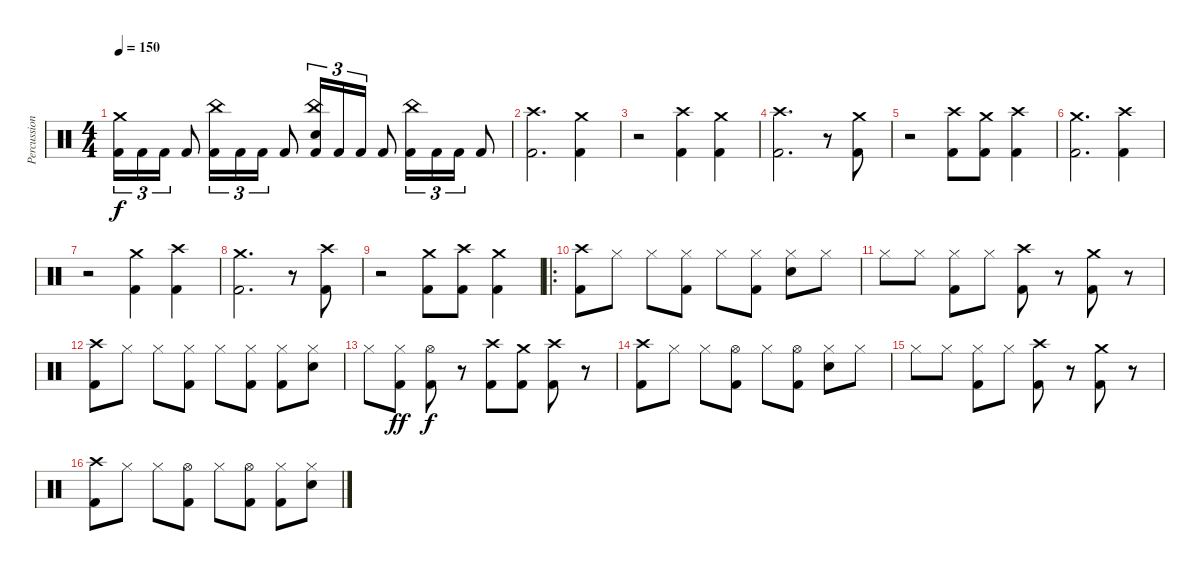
\track ("Percussion" "Percussion") {instrument percussion}
\staff {score}
\articulation defaults
\ts (4 4)
\tempo 150
\clef neutral
\ks c
("Crash medium (hit)" "Kick (hit) 2").16{tu (3 2) dy f} "Kick (hit) 2".16{tu (3 2)} "Kick (hit) 2".16{tu (3 2)} "Kick (hit) 2".8 ("China (hit)" "Kick (hit) 2").16{tu (3 2)} "Kick (hit) 2".16{tu (3 2)} "Kick (hit) 2".16{tu (3 2)} "Kick (hit) 2".8 ("China (hit)" "Snare (hit) 2" "Kick (hit) 2").16{tu (3 2)} "Kick (hit) 2".16{tu (3 2)} "Kick (hit) 2".16{tu (3 2)} "Kick (hit) 2".8 ("China (hit)" "Kick (hit) 2").16{tu (3 2)} "Kick (hit) 2".16{tu (3 2)} "Kick (hit) 2".16{tu (3 2)} "Kick (hit) 2".8 |
("Crash high (hit)" "Kick (hit) 2").2{d} ("Crash medium (hit)" "Kick (hit) 2").4 |
r.2 ("Crash high (hit)" "Kick (hit) 2").4 ("Crash medium (hit)" "Kick (hit) 2").4 |
("Crash high (hit)" "Kick (hit) 2").2{d} r.8 ("Crash medium (hit)" "Kick (hit) 2").8 |
r.2 ("Crash high (hit)" "Kick (hit) 2").8 ("Crash medium (hit)" "Kick (hit) 2").8 ("Crash high (hit)" "Kick (hit) 2").4 |
("Crash medium (hit)" "Kick (hit) 2").2{d} ("Crash high (hit)" "Kick (hit) 2").4 |
r.2 ("Crash medium (hit)" "Kick (hit) 2").4 ("Crash high (hit)" "Kick (hit) 2").4 |
("Crash medium (hit)" "Kick (hit) 2").2{d} r.8 ("Crash high (hit)" "Kick (hit) 2").8 |
r.2 ("Crash medium (hit)" "Kick (hit) 2").8 ("Crash high (hit)" "Kick (hit) 2").8 ("Crash medium (hit)" "Kick (hit) 2").4 |
\ro
("Crash high (hit)" "Kick (hit) 2").8 "Hi-Hat (closed)".8 "Hi-Hat (closed)".8 ("Hi-Hat (closed)" "Kick (hit) 2").8 "Hi-Hat (closed)".8 ("Hi-Hat (closed)" "Kick (hit) 2").8 ("Hi-Hat (closed)" "Snare (hit) 2").8 "Hi-Hat (closed)".8 |
"Hi-Hat (closed)".8 "Hi-Hat (closed)".8 ("Hi-Hat (closed)" "Kick (hit) 2").8 "Hi-Hat (closed)".8 ("Crash high (hit)" "Kick (hit) 2").8 r.8 ("Crash medium (hit)" "Kick (hit) 2").8 r.8 |
("Crash high (hit)" "Kick (hit) 2").8 "Hi-Hat (closed)".8 "Hi-Hat (closed)".8 ("Hi-Hat (closed)" "Kick (hit) 2").8 "Hi-Hat (closed)".8 ("Hi-Hat (closed)" "Kick (hit) 2").8 ("Hi-Hat (closed)" "Kick (hit) 2").8 ("Hi-Hat (closed)" "Snare (hit) 2").8 |
"Hi-Hat (closed)".8 ("Hi-Hat (closed)" "Kick (hit) 2").8{dy ff} ("Hi-Hat (open)" "Kick (hit) 2").8{dy f} r.8 ("Crash high (hit)" "Kick (hit) 2").8 ("Crash medium (hit)" "Kick (hit) 2").8 ("Crash high (hit)" "Kick (hit) 2").8 r.8 |
("Crash high (hit)" "Kick (hit) 2").8 "Hi-Hat (closed)".8 "Hi-Hat (closed)".8 ("Hi-Hat (open)" "Kick (hit) 2").8 "Hi-Hat (closed)".8 ("Hi-Hat (open)" "Kick (hit) 2").8 ("Hi-Hat (closed)" "Snare (hit) 2").8 "Hi-Hat (closed)".8 |
"Hi-Hat (closed)".8 "Hi-Hat (closed)".8 ("Hi-Hat (closed)" "Kick (hit) 2").8 "Hi-Hat (closed)".8 ("Crash high (hit)" "Kick (hit) 2").8 r.8 ("Crash medium (hit)" "Kick (hit) 2").8 r.8 |
("Crash high (hit)" "Kick (hit) 2").8 "Hi-Hat (closed)".8 "Hi-Hat (closed)".8 ("Hi-Hat (open)" "Kick (hit) 2").8 "Hi-Hat (closed)".8 ("Hi-Hat (open)" "Kick (hit) 2").8 ("Hi-Hat (closed)" "Kick (hit) 2").8 ("Hi-Hat (closed)" "Snare (hit) 2").8
